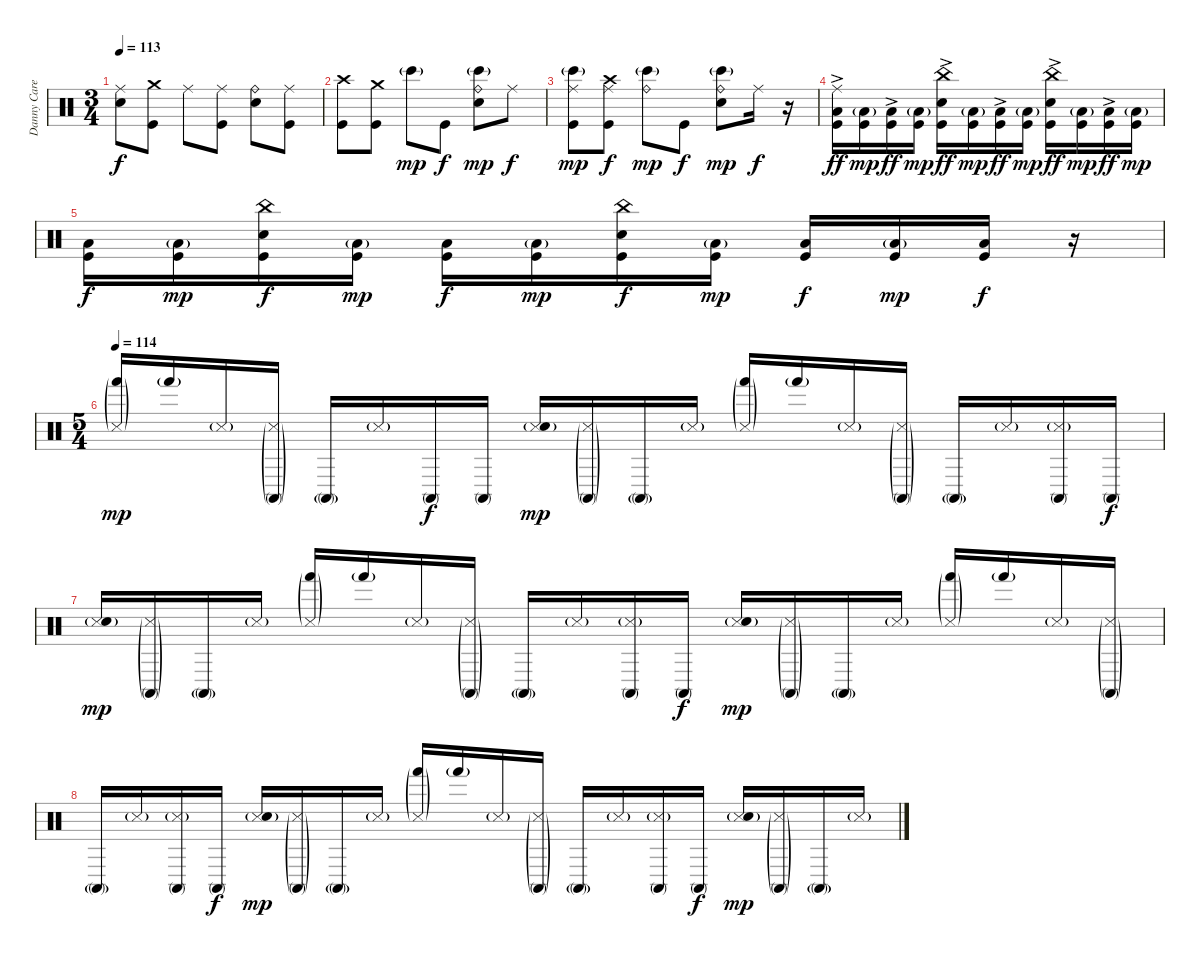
\track ("Danny Carey (drum)" "Danny Care") {instrument percussion}
\staff {score}
\articulation defaults
\ts (3 4)
\tempo 113
\clef neutral
\ks c
("Ride (middle)" "Snare (hit) 2").8{dy f} ("Crash medium (hit)" "Kick (hit)").8 "Ride (middle)".8 ("Ride (middle)" "Kick (hit)").8 ("Ride (bell)" "Snare (hit) 2").8 ("Ride (middle)" "Kick (hit)").8 |
("Crash high (hit)" "Kick (hit)").8 ("Crash medium (hit)" "Kick (hit)").8 "Bongo High (hit)"{g}.8{dy mp} "Kick (hit)".8{dy f} ("Ride (bell)" "Snare (hit) 2" "Bongo High (hit)"{g}).8{dy mp} "Ride (middle)".8{dy f} |
("Ride (middle)" "Bongo High (hit)"{g} "Kick (hit)").8{dy mp} ("Crash high (hit)" "Ride (middle)" "Kick (hit)").8{dy f} ("Ride (bell)" "Bongo High (hit)"{g}).8{dy mp} "Kick (hit)".8{dy f} ("Ride (bell)" "Snare (hit) 2" "Bongo High (hit)"{g}).8{dy mp} "Ride (middle)".16{dy f} r.16 |
("Ride (middle)" "Low Floor Tom (hit)" "Kick (hit)"{ac}).16{dy ff} ("Low Floor Tom (hit)"{g} "Kick (hit)").16{dy mp} ("Low Floor Tom (hit)" "Kick (hit)"{ac}).16{dy ff} ("Low Floor Tom (hit)"{g} "Kick (hit)").16{dy mp} ("China (hit)" "Snare (hit) 2" "Kick (hit)"{ac}).16{dy ff} ("Low Floor Tom (hit)"{g} "Kick (hit)").16{dy mp} ("Low Floor Tom (hit)" "Kick (hit)"{ac}).16{dy ff} ("Low Floor Tom (hit)"{g} "Kick (hit)").16{dy mp} ("China (hit)" "Snare (hit) 2" "Kick (hit)"{ac}).16{dy ff} ("Low Floor Tom (hit)"{g} "Kick (hit)").16{dy mp} ("Low Floor Tom (hit)" "Kick (hit)"{ac}).16{dy ff} ("Low Floor Tom (hit)"{g} "Kick (hit)").16{dy mp} |
("Low Floor Tom (hit)" "Kick (hit)").16{dy f} ("Low Floor Tom (hit)"{g} "Kick (hit)").16{dy mp} ("China (hit)" "Snare (hit) 2" "Kick (hit)").16{dy f} ("Low Floor Tom (hit)"{g} "Kick (hit)").16{dy mp} ("Low Floor Tom (hit)" "Kick (hit)").16{dy f} ("Low Floor Tom (hit)"{g} "Kick (hit)").16{dy mp} ("China (hit)" "Snare (hit) 2" "Kick (hit)").16{dy f} ("Low Floor Tom (hit)"{g} "Kick (hit)").16{dy mp} ("Low Floor Tom (hit)" "Kick (hit)").16{dy f} ("Low Floor Tom (hit)"{g} "Kick (hit)").16{dy mp} ("Low Floor Tom (hit)" "Kick (hit)").16{dy f} r.16 |
\ts (5 4)
\tempo 114
("Hand (hit)"{g} "Snare (side stick) 3"{g}).16{dy mp} "Hand (hit)"{g}.16 "Snare (side stick) 3"{g}.16 ("Conga high (mute)"{g} "Snare (side stick) 3"{g}).16 "Conga high (mute)"{g}.16 "Snare (side stick) 3"{g}.16 "Conga high (mute)".16{dy f} "Conga high (mute)".16 ("Snare (side stick) 3"{g} "Snare (hit) 2").16{dy mp} ("Conga high (mute)"{g} "Snare (side stick) 3"{g}).16 "Conga high (mute)"{g}.16 "Snare (side stick) 3"{g}.16 ("Hand (hit)"{g} "Snare (side stick) 3"{g}).16 "Hand (hit)"{g}.16 "Snare (side stick) 3"{g}.16 ("Conga high (mute)"{g} "Snare (side stick) 3"{g}).16 "Conga high (mute)"{g}.16 "Snare (side stick) 3"{g}.16 ("Conga high (mute)" "Snare (side stick) 3"{g}).16 "Conga high (mute)".16{dy f} |
("Snare (side stick) 3"{g} "Snare (hit) 2").16{dy mp} ("Conga high (mute)"{g} "Snare (side stick) 3"{g}).16 "Conga high (mute)"{g}.16 "Snare (side stick) 3"{g}.16 ("Hand (hit)"{g} "Snare (side stick) 3"{g}).16 "Hand (hit)"{g}.16 "Snare (side stick) 3"{g}.16 ("Conga high (mute)"{g} "Snare (side stick) 3"{g}).16 "Conga high (mute)"{g}.16 "Snare (side stick) 3"{g}.16 ("Conga high (mute)" "Snare (side stick) 3"{g}).16 "Conga high (mute)".16{dy f} ("Snare (side stick) 3"{g} "Snare (hit) 2").16{dy mp} ("Conga high (mute)"{g} "Snare (side stick) 3"{g}).16 "Conga high (mute)"{g}.16 "Snare (side stick) 3"{g}.16 ("Hand (hit)"{g} "Snare (side stick) 3"{g}).16 "Hand (hit)"{g}.16 "Snare (side stick) 3"{g}.16 ("Conga high (mute)"{g} "Snare (side stick) 3"{g}).16 |
"Conga high (mute)"{g}.16 "Snare (side stick) 3"{g}.16 ("Conga high (mute)" "Snare (side stick) 3"{g}).16 "Conga high (mute)".16{dy f} ("Snare (side stick) 3"{g} "Snare (hit) 2").16{dy mp} ("Conga high (mute)"{g} "Snare (side stick) 3"{g}).16 "Conga high (mute)"{g}.16 "Snare (side stick) 3"{g}.16 ("Hand (hit)"{g} "Snare (side stick) 3"{g}).16 "Hand (hit)"{g}.16 "Snare (side stick) 3"{g}.16 ("Conga high (mute)"{g} "Snare (side stick) 3"{g}).16 "Conga high (mute)"{g}.16 "Snare (side stick) 3"{g}.16 ("Conga high (mute)" "Snare (side stick) 3"{g}).16 "Conga high (mute)".16{dy f} ("Snare (side stick) 3"{g} "Snare (hit) 2").16{dy mp} ("Conga high (mute)"{g} "Snare (side stick) 3"{g}).16 "Conga high (mute)"{g}.16 "Snare (side stick) 3"{g}.16
